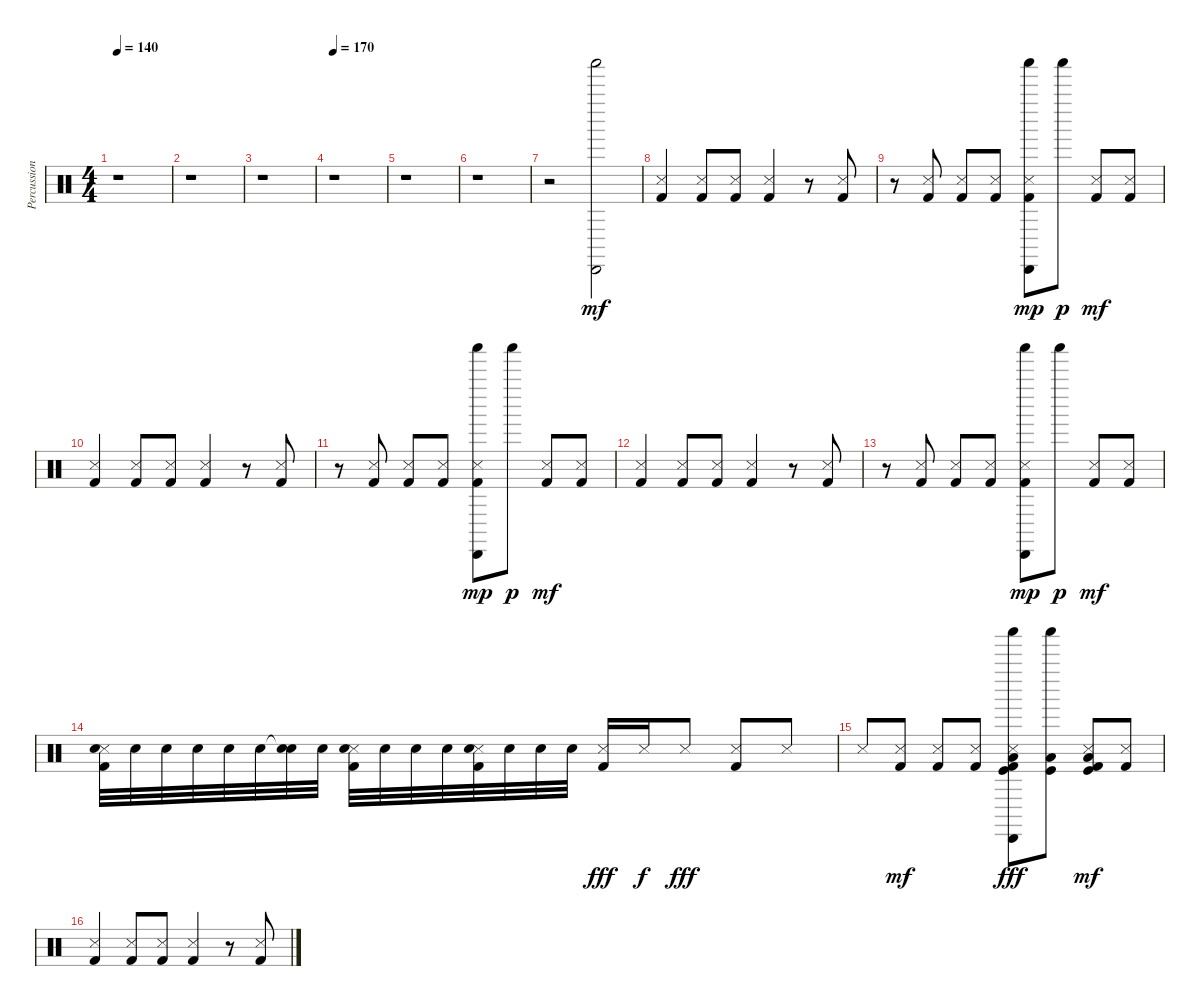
\track ("Percussion" "Percussion") {instrument percussion}
\staff {score}
\articulation defaults
\ts (4 4)
\tempo 140
\clef neutral
\ks c
r.1{dy mp} |
r.1 |
r.1 |
\tempo 170
r.1 |
r.1 |
r.1{volume 0} |
r.2{volume 6} ("Shaker (hit)" "Cabasa (hit)").2{dy mf} |
("Metronome (hit)" "Kick (hit) 2").4 ("Metronome (hit)" "Kick (hit) 2").8 ("Metronome (hit)" "Kick (hit) 2").8 ("Metronome (hit)" "Kick (hit) 2").4 r.8 ("Metronome (hit)" "Kick (hit) 2").8 |
r.8 ("Metronome (hit)" "Kick (hit) 2").8 ("Metronome (hit)" "Kick (hit) 2").8 ("Metronome (hit)" "Kick (hit) 2").8 ("Metronome (hit)" "Shaker (hit)" "Cabasa (hit)" "Kick (hit) 2").8{dy mp} "Shaker (hit)".8{dy p} ("Metronome (hit)" "Kick (hit) 2").8{dy mf} ("Metronome (hit)" "Kick (hit) 2").8 |
("Metronome (hit)" "Kick (hit) 2").4 ("Metronome (hit)" "Kick (hit) 2").8 ("Metronome (hit)" "Kick (hit) 2").8 ("Metronome (hit)" "Kick (hit) 2").4 r.8 ("Metronome (hit)" "Kick (hit) 2").8 |
r.8 ("Metronome (hit)" "Kick (hit) 2").8 ("Metronome (hit)" "Kick (hit) 2").8 ("Metronome (hit)" "Kick (hit) 2").8 ("Metronome (hit)" "Shaker (hit)" "Cabasa (hit)" "Kick (hit) 2").8{dy mp} "Shaker (hit)".8{dy p} ("Metronome (hit)" "Kick (hit) 2").8{dy mf} ("Metronome (hit)" "Kick (hit) 2").8 |
("Metronome (hit)" "Kick (hit) 2").4 ("Metronome (hit)" "Kick (hit) 2").8 ("Metronome (hit)" "Kick (hit) 2").8 ("Metronome (hit)" "Kick (hit) 2").4 r.8 ("Metronome (hit)" "Kick (hit) 2").8 |
r.8 ("Metronome (hit)" "Kick (hit) 2").8 ("Metronome (hit)" "Kick (hit) 2").8 ("Metronome (hit)" "Kick (hit) 2").8 ("Metronome (hit)" "Shaker (hit)" "Cabasa (hit)" "Kick (hit) 2").8{dy mp} "Shaker (hit)".8{dy p} ("Metronome (hit)" "Kick (hit) 2").8{dy mf} ("Metronome (hit)" "Kick (hit) 2").8 |
("Metronome (hit)" "Snare (hit) 2" "Kick (hit) 2").32 "Snare (hit) 2".32 "Snare (hit) 2".32 "Snare (hit) 2".32 "Snare (hit) 2".32 "Snare (hit) 2".32 ("Snare (hit)"{t} "Snare (hit) 2").32 "Snare (hit) 2".32 ("Metronome (hit)" "Snare (hit) 2" "Kick (hit) 2").32 "Snare (hit) 2".32 "Snare (hit) 2".32 "Snare (hit) 2".32 ("Metronome (hit)" "Snare (hit) 2" "Kick (hit) 2").32 "Snare (hit) 2".32 "Snare (hit) 2".32 "Snare (hit) 2".32 ("Metronome (hit)" "Kick (hit) 2").16{dy fff volume 8} "Metronome (hit)".16{dy f} "Metronome (hit)".8{dy fff} ("Metronome (hit)" "Kick (hit) 2").8 "Metronome (hit)".8 |
"Metronome (hit)".8 ("Metronome (hit)" "Kick (hit) 2").8{dy mf} ("Metronome (hit)" "Kick (hit) 2").8 ("Metronome (hit)" "Kick (hit) 2").8 ("Metronome (hit)" "Shaker (hit)" "Cabasa (hit)" "Low Tom (hit)" "Kick (hit)" "Kick (hit) 2").8{dy fff} ("Shaker (hit)" "Low Tom (hit)" "Kick (hit)").8 ("Metronome (hit)" "Low Tom (hit)" "Kick (hit)" "Kick (hit) 2").8{dy mf} ("Metronome (hit)" "Kick (hit) 2").8 |
("Metronome (hit)" "Kick (hit) 2").4 ("Metronome (hit)" "Kick (hit) 2").8 ("Metronome (hit)" "Kick (hit) 2").8 ("Metronome (hit)" "Kick (hit) 2").4 r.8 ("Metronome (hit)" "Kick (hit) 2").8
